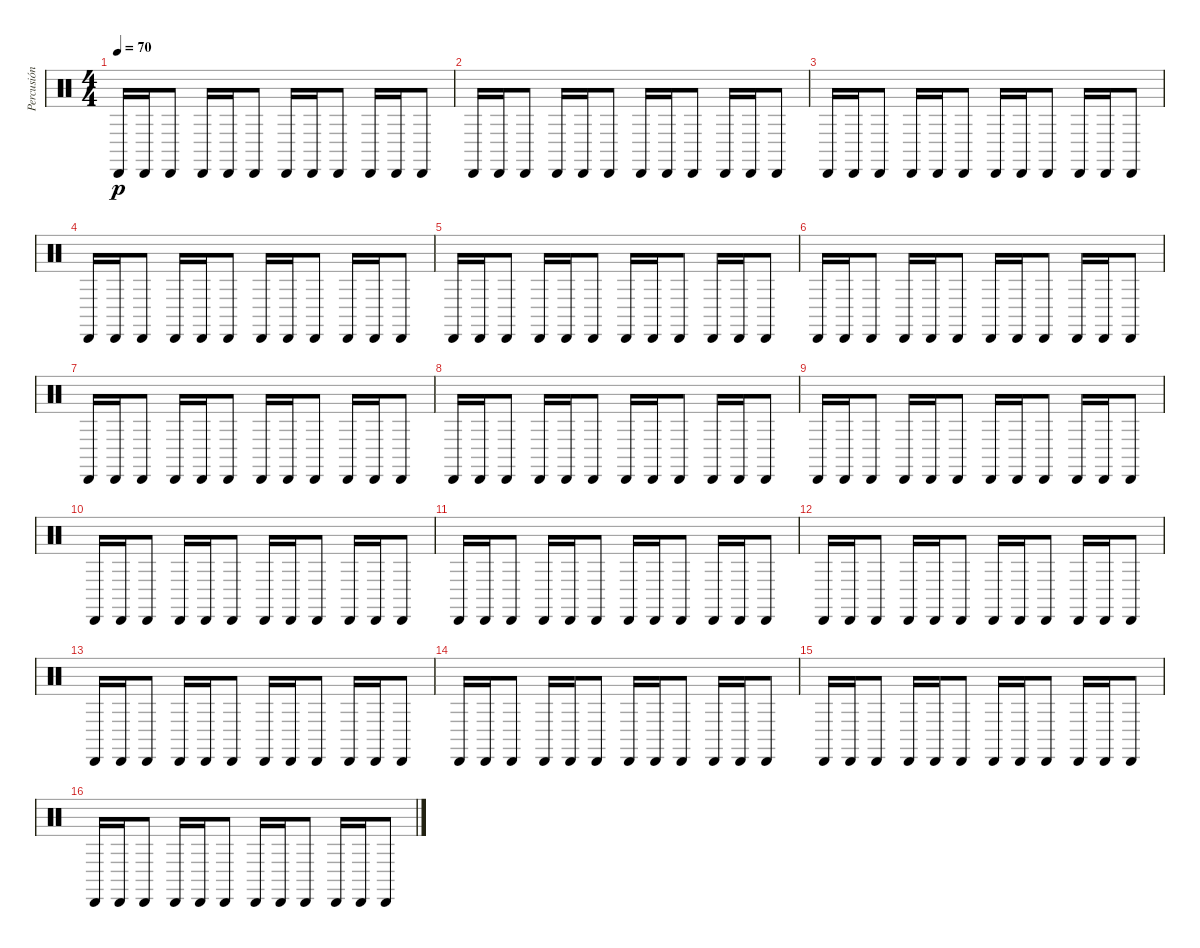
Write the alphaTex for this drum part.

\track ("Percusión" "Percusión") {instrument percussion}
\staff {score}
\articulation defaults
\ts (4 4)
\tempo 70
\clef neutral
\ks c "Cabasa (hit)".16{dy p} "Cabasa (hit)".16 "Cabasa (hit)".8 "Cabasa (hit)".16 "Cabasa (hit)".16 "Cabasa (hit)".8 "Cabasa (hit)".16 "Cabasa (hit)".16 "Cabasa (hit)".8 "Cabasa (hit)".16 "Cabasa (hit)".16 "Cabasa (hit)".8
|
"Cabasa (hit)".16 "Cabasa (hit)".16 "Cabasa (hit)".8 "Cabasa (hit)".16 "Cabasa (hit)".16 "Cabasa (hit)".8 "Cabasa (hit)".16 "Cabasa (hit)".16 "Cabasa (hit)".8 "Cabasa (hit)".16 "Cabasa (hit)".16 "Cabasa (hit)".8 |
"Cabasa (hit)".16 "Cabasa (hit)".16 "Cabasa (hit)".8 "Cabasa (hit)".16 "Cabasa (hit)".16 "Cabasa (hit)".8 "Cabasa (hit)".16 "Cabasa (hit)".16 "Cabasa (hit)".8 "Cabasa (hit)".16 "Cabasa (hit)".16 "Cabasa (hit)".8 |
"Cabasa (hit)".16 "Cabasa (hit)".16 "Cabasa (hit)".8 "Cabasa (hit)".16 "Cabasa (hit)".16 "Cabasa (hit)".8 "Cabasa (hit)".16 "Cabasa (hit)".16 "Cabasa (hit)".8 "Cabasa (hit)".16 "Cabasa (hit)".16 "Cabasa (hit)".8 |
"Cabasa (hit)".16 "Cabasa (hit)".16 "Cabasa (hit)".8 "Cabasa (hit)".16 "Cabasa (hit)".16 "Cabasa (hit)".8 "Cabasa (hit)".16 "Cabasa (hit)".16 "Cabasa (hit)".8 "Cabasa (hit)".16 "Cabasa (hit)".16 "Cabasa (hit)".8 |
"Cabasa (hit)".16 "Cabasa (hit)".16 "Cabasa (hit)".8 "Cabasa (hit)".16 "Cabasa (hit)".16 "Cabasa (hit)".8 "Cabasa (hit)".16 "Cabasa (hit)".16 "Cabasa (hit)".8 "Cabasa (hit)".16 "Cabasa (hit)".16 "Cabasa (hit)".8 |
"Cabasa (hit)".16 "Cabasa (hit)".16 "Cabasa (hit)".8 "Cabasa (hit)".16 "Cabasa (hit)".16 "Cabasa (hit)".8 "Cabasa (hit)".16 "Cabasa (hit)".16 "Cabasa (hit)".8 "Cabasa (hit)".16 "Cabasa (hit)".16 "Cabasa (hit)".8 |
"Cabasa (hit)".16 "Cabasa (hit)".16 "Cabasa (hit)".8 "Cabasa (hit)".16 "Cabasa (hit)".16 "Cabasa (hit)".8 "Cabasa (hit)".16 "Cabasa (hit)".16 "Cabasa (hit)".8 "Cabasa (hit)".16 "Cabasa (hit)".16 "Cabasa (hit)".8 |
"Cabasa (hit)".16 "Cabasa (hit)".16 "Cabasa (hit)".8 "Cabasa (hit)".16 "Cabasa (hit)".16 "Cabasa (hit)".8 "Cabasa (hit)".16 "Cabasa (hit)".16 "Cabasa (hit)".8 "Cabasa (hit)".16 "Cabasa (hit)".16 "Cabasa (hit)".8 |
"Cabasa (hit)".16 "Cabasa (hit)".16 "Cabasa (hit)".8 "Cabasa (hit)".16 "Cabasa (hit)".16 "Cabasa (hit)".8 "Cabasa (hit)".16 "Cabasa (hit)".16 "Cabasa (hit)".8 "Cabasa (hit)".16 "Cabasa (hit)".16 "Cabasa (hit)".8 |
"Cabasa (hit)".16 "Cabasa (hit)".16 "Cabasa (hit)".8 "Cabasa (hit)".16 "Cabasa (hit)".16 "Cabasa (hit)".8 "Cabasa (hit)".16 "Cabasa (hit)".16 "Cabasa (hit)".8 "Cabasa (hit)".16 "Cabasa (hit)".16 "Cabasa (hit)".8 |
"Cabasa (hit)".16 "Cabasa (hit)".16 "Cabasa (hit)".8 "Cabasa (hit)".16 "Cabasa (hit)".16 "Cabasa (hit)".8 "Cabasa (hit)".16 "Cabasa (hit)".16 "Cabasa (hit)".8 "Cabasa (hit)".16 "Cabasa (hit)".16 "Cabasa (hit)".8 |
"Cabasa (hit)".16 "Cabasa (hit)".16 "Cabasa (hit)".8 "Cabasa (hit)".16 "Cabasa (hit)".16 "Cabasa (hit)".8 "Cabasa (hit)".16 "Cabasa (hit)".16 "Cabasa (hit)".8 "Cabasa (hit)".16 "Cabasa (hit)".16 "Cabasa (hit)".8 |
"Cabasa (hit)".16 "Cabasa (hit)".16 "Cabasa (hit)".8 "Cabasa (hit)".16 "Cabasa (hit)".16 "Cabasa (hit)".8 "Cabasa (hit)".16 "Cabasa (hit)".16 "Cabasa (hit)".8 "Cabasa (hit)".16 "Cabasa (hit)".16 "Cabasa (hit)".8 |
"Cabasa (hit)".16 "Cabasa (hit)".16 "Cabasa (hit)".8 "Cabasa (hit)".16 "Cabasa (hit)".16 "Cabasa (hit)".8 "Cabasa (hit)".16 "Cabasa (hit)".16 "Cabasa (hit)".8 "Cabasa (hit)".16 "Cabasa (hit)".16 "Cabasa (hit)".8 |
"Cabasa (hit)".16 "Cabasa (hit)".16 "Cabasa (hit)".8 "Cabasa (hit)".16 "Cabasa (hit)".16 "Cabasa (hit)".8 "Cabasa (hit)".16 "Cabasa (hit)".16 "Cabasa (hit)".8 "Cabasa (hit)".16 "Cabasa (hit)".16 "Cabasa (hit)".8
